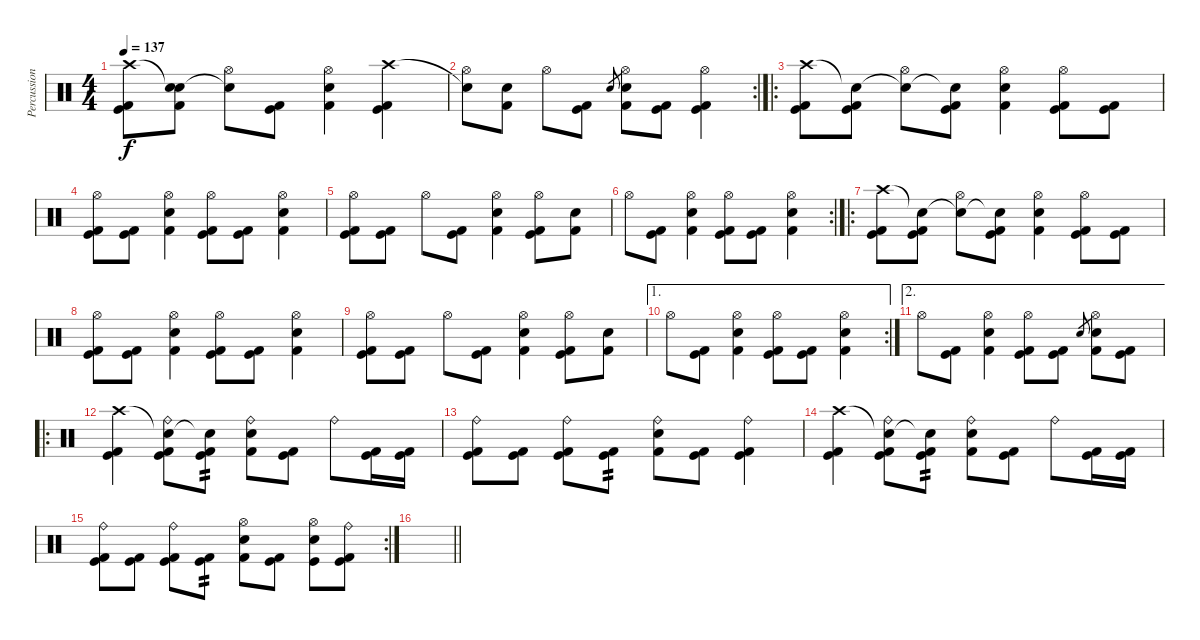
\track ("Percussion" "Percussion") {instrument percussion}
\staff {score}
\articulation defaults
\ts (4 4)
\tempo 137
\clef neutral
\ks c
("Crash high (hit)" "Kick (hit) 2" "Kick (hit)").8{dy f} ("Snare (hit)"{t} "Snare (hit) 2" "Kick (hit) 2").8 ("Snare (hit)"{t} "Hi-Hat (open)").8 ("Kick (hit) 2" "Kick (hit)").8 ("Hi-Hat (open)" "Snare (hit) 2" "Kick (hit) 2").4 ("Crash high (hit)" "Kick (hit) 2" "Kick (hit)").4 |
\rc 2
("Snare (hit)"{t} "Hi-Hat (open)").8 ("Snare (hit) 2" "Kick (hit) 2").8 "Hi-Hat (open)".8 ("Kick (hit) 2" "Kick (hit)").8 "Snare (hit) 2".8{gr} ("Hi-Hat (open)" "Snare (hit) 2" "Kick (hit) 2").8 ("Kick (hit) 2" "Kick (hit)").8 ("Hi-Hat (open)" "Kick (hit) 2" "Kick (hit)").4 |
\ro
("Crash high (hit)" "Kick (hit) 2" "Kick (hit)").8 ("Snare (hit)"{t} "Kick (hit) 2" "Kick (hit)").8 ("Snare (hit)"{t} "Hi-Hat (open)").8 ("Snare (hit)"{t} "Kick (hit) 2" "Kick (hit)").8 ("Hi-Hat (open)" "Snare (hit) 2" "Kick (hit) 2").4 ("Hi-Hat (open)" "Kick (hit) 2" "Kick (hit)").8 ("Kick (hit) 2" "Kick (hit)").8 |
("Hi-Hat (open)" "Kick (hit) 2" "Kick (hit)").8 ("Kick (hit) 2" "Kick (hit)").8 ("Hi-Hat (open)" "Snare (hit) 2" "Kick (hit) 2").4 ("Hi-Hat (open)" "Kick (hit) 2" "Kick (hit)").8 ("Kick (hit) 2" "Kick (hit)").8 ("Hi-Hat (open)" "Snare (hit) 2" "Kick (hit) 2").4 |
("Hi-Hat (open)" "Kick (hit) 2" "Kick (hit)").8 ("Kick (hit) 2" "Kick (hit)").8 "Hi-Hat (open)".8 ("Kick (hit) 2" "Kick (hit)").8 ("Hi-Hat (open)" "Snare (hit) 2" "Kick (hit) 2").4 ("Hi-Hat (open)" "Kick (hit) 2" "Kick (hit)").8 ("Snare (hit) 2" "Kick (hit) 2").8 |
\rc 2 "Hi-Hat (open)".8
("Kick (hit) 2" "Kick (hit)").8 ("Hi-Hat (open)" "Snare (hit) 2" "Kick (hit) 2").4 ("Hi-Hat (open)" "Kick (hit) 2" "Kick (hit)").8 ("Kick (hit) 2" "Kick (hit)").8 ("Hi-Hat (open)" "Snare (hit) 2" "Kick (hit) 2").4 |
\ro
("Crash high (hit)" "Kick (hit) 2" "Kick (hit)").8 ("Snare (hit)"{t} "Kick (hit) 2" "Kick (hit)").8 ("Snare (hit)"{t} "Hi-Hat (open)").8 ("Snare (hit)"{t} "Kick (hit) 2" "Kick (hit)").8 ("Hi-Hat (open)" "Snare (hit) 2" "Kick (hit) 2").4 ("Hi-Hat (open)" "Kick (hit) 2" "Kick (hit)").8 ("Kick (hit) 2" "Kick (hit)").8 |
("Hi-Hat (open)" "Kick (hit) 2" "Kick (hit)").8 ("Kick (hit) 2" "Kick (hit)").8 ("Hi-Hat (open)" "Snare (hit) 2" "Kick (hit) 2").4 ("Hi-Hat (open)" "Kick (hit) 2" "Kick (hit)").8 ("Kick (hit) 2" "Kick (hit)").8 ("Hi-Hat (open)" "Snare (hit) 2" "Kick (hit) 2").4 |
("Hi-Hat (open)" "Kick (hit) 2" "Kick (hit)").8 ("Kick (hit) 2" "Kick (hit)").8 "Hi-Hat (open)".8 ("Kick (hit) 2" "Kick (hit)").8 ("Hi-Hat (open)" "Snare (hit) 2" "Kick (hit) 2").4 ("Hi-Hat (open)" "Kick (hit) 2" "Kick (hit)").8 ("Snare (hit) 2" "Kick (hit) 2").8 |
\ae 1
\rc 2 "Hi-Hat (open)".8
("Kick (hit) 2" "Kick (hit)").8 ("Hi-Hat (open)" "Snare (hit) 2" "Kick (hit) 2").4 ("Hi-Hat (open)" "Kick (hit) 2" "Kick (hit)").8 ("Kick (hit) 2" "Kick (hit)").8 ("Hi-Hat (open)" "Snare (hit) 2" "Kick (hit) 2").4 |
\ae 2 "Hi-Hat (open)".8
("Kick (hit) 2" "Kick (hit)").8 ("Hi-Hat (open)" "Snare (hit) 2" "Kick (hit) 2").4 ("Hi-Hat (open)" "Kick (hit) 2" "Kick (hit)").8 ("Kick (hit) 2" "Kick (hit)").8 "Snare (hit) 2".8{gr} ("Hi-Hat (open)" "Snare (hit) 2" "Kick (hit) 2").8 ("Kick (hit) 2" "Kick (hit)").8 |
\ro
("Crash high (hit)" "Kick (hit) 2" "Kick (hit)").4 ("Snare (hit)"{t} "Ride (bell)" "Kick (hit) 2" "Kick (hit)").8 ("Snare (hit)"{t} "Kick (hit) 2" "Kick (hit)").8{tp 2} ("Ride (bell)" "Snare (hit) 2" "Kick (hit) 2").8 ("Kick (hit) 2" "Kick (hit)").8 "Ride (bell)".8 ("Kick (hit) 2" "Kick (hit)").16 ("Kick (hit) 2" "Kick (hit)").16 |
("Ride (bell)" "Kick (hit) 2" "Kick (hit)").8 ("Kick (hit) 2" "Kick (hit)").8 ("Ride (bell)" "Kick (hit)" "Kick (hit) 2").8 ("Kick (hit) 2" "Kick (hit)").8{tp 2} ("Ride (bell)" "Snare (hit) 2" "Kick (hit) 2").8 ("Kick (hit) 2" "Kick (hit)").8 ("Ride (bell)" "Kick (hit) 2" "Kick (hit)").4 |
("Crash high (hit)" "Kick (hit) 2" "Kick (hit)").4 ("Snare (hit)"{t} "Ride (bell)" "Kick (hit) 2" "Kick (hit)").8 ("Snare (hit)"{t} "Kick (hit) 2" "Kick (hit)").8{tp 2} ("Ride (bell)" "Snare (hit) 2" "Kick (hit) 2").8 ("Kick (hit) 2" "Kick (hit)").8 "Ride (bell)".8 ("Kick (hit) 2" "Kick (hit)").16 ("Kick (hit) 2" "Kick (hit)").16 |
\rc 2
("Ride (bell)" "Kick (hit) 2" "Kick (hit)").8 ("Kick (hit) 2" "Kick (hit)").8 ("Ride (bell)" "Kick (hit)" "Kick (hit) 2").8 ("Kick (hit) 2" "Kick (hit)").8{tp 2} ("Hi-Hat (open)" "Snare (hit) 2" "Kick (hit) 2").8 ("Kick (hit) 2" "Kick (hit)").8 ("Hi-Hat (open)" "Snare (hit) 2" "Kick (hit)").8 ("Ride (bell)" "Kick (hit) 2" "Kick (hit)").8 |
\barLineRight lightlight
